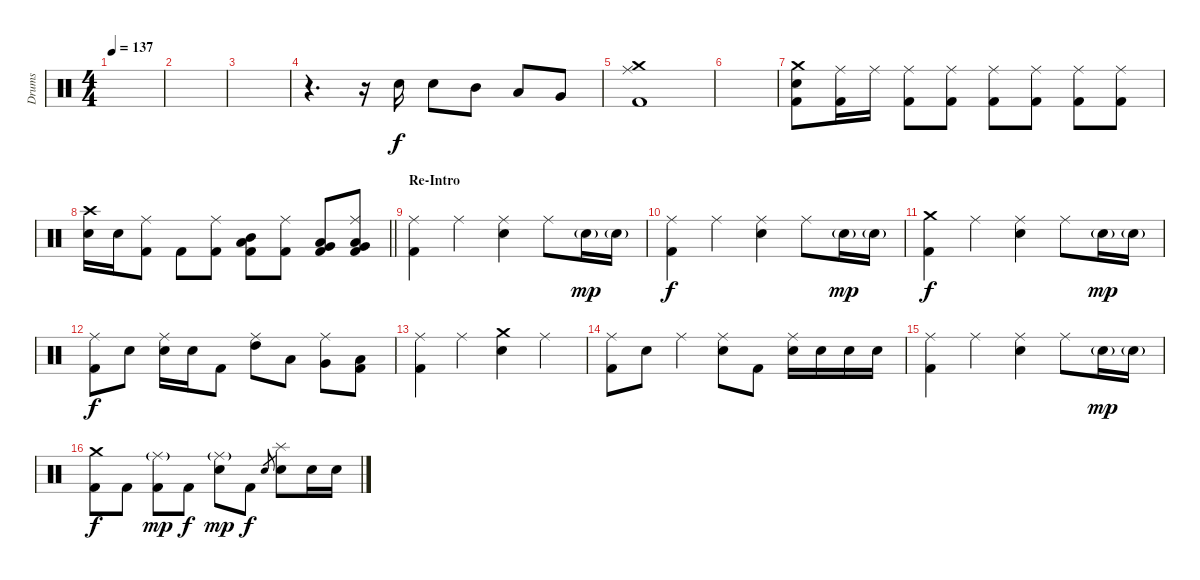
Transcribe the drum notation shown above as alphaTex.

\track ("Drums" "Drums") {instrument percussion}
\staff {score}
\articulation defaults
\ts (4 4)
\tempo 137
\clef neutral
\ks c
|
|
|
r.4{d} r.16 "Electric Snare (hit)".16 "Electric Snare (hit)".8 "Mid Tom (hit)".8 "Low Tom (hit)".8 "Very Low Tom (hit)".8 |
("Crash medium (hit)" "Ride (middle)" "Kick (hit) 2").1 |
|
("Crash medium (hit)" "Electric Snare (hit)" "Kick (hit) 2").8 ("Ride (middle)" "Kick (hit) 2").16 "Ride (middle)".16 ("Ride (middle)" "Kick (hit) 2").8 ("Ride (middle)" "Kick (hit) 2").8 ("Ride (middle)" "Kick (hit) 2").8 ("Ride (middle)" "Kick (hit) 2").8 ("Ride (middle)" "Kick (hit) 2").8 ("Ride (middle)" "Kick (hit) 2").8 |
\barLineRight lightlight
("Crash high (hit)" "Electric Snare (hit)").16 "Electric Snare (hit)".16 ("Ride (middle)" "Kick (hit) 2").8 "Kick (hit) 2".8 ("Ride (middle)" "Kick (hit) 2").8 ("Low Tom (hit)" "Mid Tom (hit)" "Kick (hit) 2").8 ("Ride (middle)" "Kick (hit) 2").8 ("Very Low Tom (hit)" "Low Tom (hit)" "Kick (hit) 2").8 ("Ride (middle)" "Low Floor Tom (hit)" "Very Low Tom (hit)" "Kick (hit) 2").8 |
\section ("" "Re-Intro")
("Ride (middle)" "Kick (hit) 2").4 "Ride (middle)".4 ("Ride (middle)" "Electric Snare (hit)").4 "Ride (middle)".8 "Electric Snare (hit)"{g}.16{dy mp} "Electric Snare (hit)"{g}.16 |
("Ride (middle)" "Kick (hit) 2").4{dy f} "Ride (middle)".4 ("Ride (middle)" "Electric Snare (hit)").4 "Ride (middle)".8 "Electric Snare (hit)"{g}.16{dy mp} "Electric Snare (hit)"{g}.16 |
("Crash medium (hit)" "Kick (hit) 2").4{dy f} "Ride (middle)".4 ("Ride (middle)" "Electric Snare (hit)").4 "Ride (middle)".8 "Electric Snare (hit)"{g}.16{dy mp} "Electric Snare (hit)"{g}.16 |
("Ride (middle)" "Kick (hit) 2").8{dy f} "Electric Snare (hit)".8 ("Ride (middle)" "Electric Snare (hit)").16 "Electric Snare (hit)".16 "Kick (hit) 2".8 ("Ride (middle)" "High Tom (hit)").8 "Low Tom (hit)".8 ("Ride (middle)" "Very Low Tom (hit)").8 ("Low Floor Tom (hit)" "Kick (hit) 2").8 |
("Ride (middle)" "Kick (hit) 2").4 "Ride (middle)".4 ("Crash medium (hit)" "Electric Snare (hit)").4 "Ride (middle)".4 |
("Ride (middle)" "Kick (hit) 2").8 "Electric Snare (hit)".8 "Ride (middle)".4 ("Ride (middle)" "Electric Snare (hit)").8 "Kick (hit) 2".8 ("Ride (middle)" "Electric Snare (hit)").16 "Electric Snare (hit)".16 "Electric Snare (hit)".16 "Electric Snare (hit)".16 |
("Ride (middle)" "Kick (hit) 2").4 "Ride (middle)".4 ("Ride (middle)" "Electric Snare (hit)").4 "Ride (middle)".8 "Electric Snare (hit)"{g}.16{dy mp} "Electric Snare (hit)"{g}.16 |
("Crash medium (hit)" "Kick (hit) 2").8{dy f} "Kick (hit) 2".8 ("Ride (middle)"{g} "Kick (hit) 2").8{dy mp} "Kick (hit) 2".8{dy f} ("Ride (middle)"{g} "Electric Snare (hit)").8{dy mp} "Kick (hit) 2".8{dy f} "Electric Snare (hit)".8{gr} ("Splash (hit)" "Electric Snare (hit)").8 "Electric Snare (hit)".16 "Electric Snare (hit)".16
